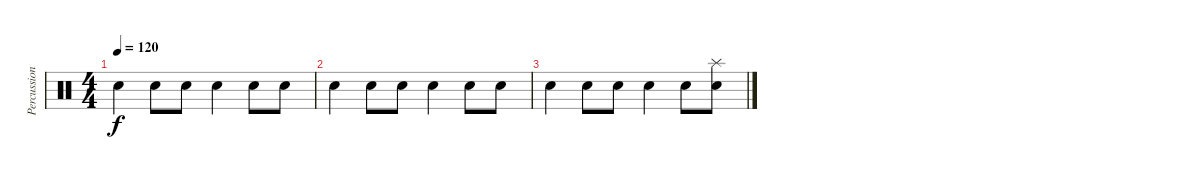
\track ("Percussions" "Percussion") {instrument percussion}
\staff {score}
\articulation defaults
\ts (4 4)
\tempo 120
\clef neutral
\ks c "Electric Snare (hit)".4{dy f} "Hand Clap (hit)".8 "Hand Clap (hit)".8 "Electric Snare (hit)".4 "Hand Clap (hit)".8 "Hand Clap (hit)".8
|
"Electric Snare (hit)".4 "Hand Clap (hit)".8 "Hand Clap (hit)".8 "Electric Snare (hit)".4 "Hand Clap (hit)".8 "Hand Clap (hit)".8 |
"Electric Snare (hit)".4 "Hand Clap (hit)".8 "Hand Clap (hit)".8 "Electric Snare (hit)".4 "Snare (hit) 2".8 ("Snare (hit) 2" "Splash (hit)").8
